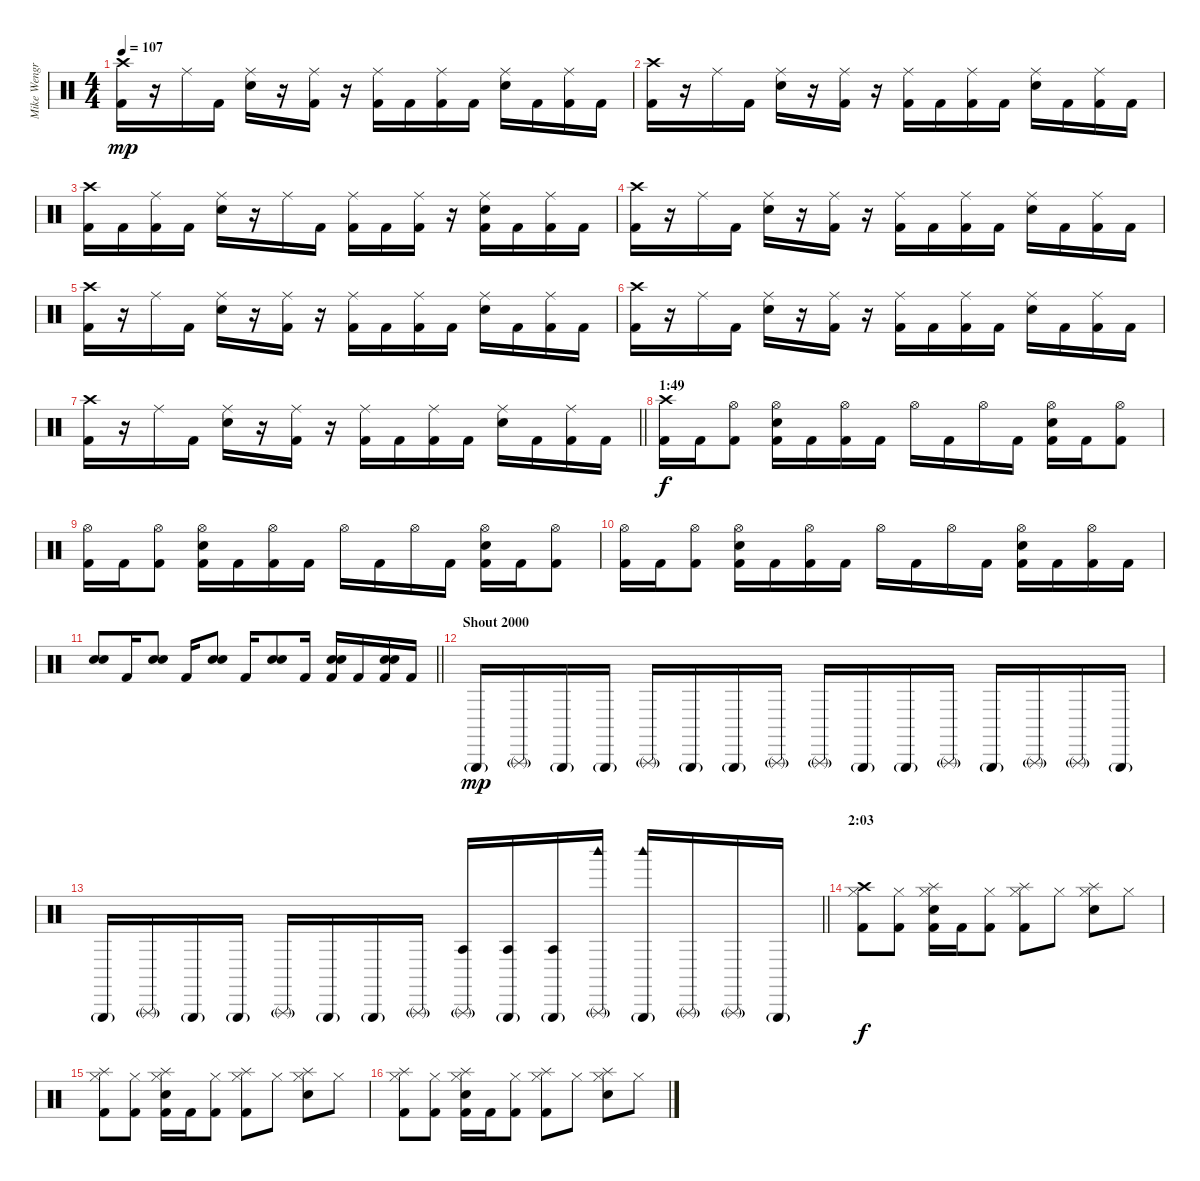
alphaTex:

\track ("Mike Wengren" "Mike Wengr") {instrument percussion}
\staff {score}
\articulation defaults
\ts (4 4)
\tempo 107
\clef neutral
\ks c
("Crash high (hit)" "Kick (hit) 2").16{dy mp} r.16 "Ride (middle)".16 "Kick (hit) 2".16 ("Ride (middle)" "Snare (hit) 2").16 r.16 ("Ride (middle)" "Kick (hit) 2").16 r.16 ("Ride (middle)" "Kick (hit) 2").16 "Kick (hit) 2".16 ("Ride (middle)" "Kick (hit) 2").16 "Kick (hit) 2".16 ("Ride (middle)" "Snare (hit) 2").16 "Kick (hit) 2".16 ("Ride (middle)" "Kick (hit) 2").16 "Kick (hit) 2".16 |
("Crash high (hit)" "Kick (hit) 2").16 r.16 "Ride (middle)".16 "Kick (hit) 2".16 ("Ride (middle)" "Snare (hit) 2").16 r.16 ("Ride (middle)" "Kick (hit) 2").16 r.16 ("Ride (middle)" "Kick (hit) 2").16 "Kick (hit) 2".16 ("Ride (middle)" "Kick (hit) 2").16 "Kick (hit) 2".16 ("Ride (middle)" "Snare (hit) 2").16 "Kick (hit) 2".16 ("Ride (middle)" "Kick (hit) 2").16 "Kick (hit) 2".16 |
("Crash high (hit)" "Kick (hit) 2").16 "Kick (hit) 2".16 ("Ride (middle)" "Kick (hit) 2").16 "Kick (hit) 2".16 ("Ride (middle)" "Snare (hit) 2").16 r.16 "Ride (middle)".16 "Kick (hit) 2".16 ("Ride (middle)" "Kick (hit) 2").16 "Kick (hit) 2".16 ("Ride (middle)" "Kick (hit) 2").16 r.16 ("Ride (middle)" "Snare (hit) 2" "Kick (hit) 2").16 "Kick (hit) 2".16 ("Ride (middle)" "Kick (hit) 2").16 "Kick (hit) 2".16 |
("Crash high (hit)" "Kick (hit) 2").16 r.16 "Ride (middle)".16 "Kick (hit) 2".16 ("Ride (middle)" "Snare (hit) 2").16 r.16 ("Ride (middle)" "Kick (hit) 2").16 r.16 ("Ride (middle)" "Kick (hit) 2").16 "Kick (hit) 2".16 ("Ride (middle)" "Kick (hit) 2").16 "Kick (hit) 2".16 ("Ride (middle)" "Snare (hit) 2").16 "Kick (hit) 2".16 ("Ride (middle)" "Kick (hit) 2").16 "Kick (hit) 2".16 |
("Crash high (hit)" "Kick (hit) 2").16 r.16 "Ride (middle)".16 "Kick (hit) 2".16 ("Ride (middle)" "Snare (hit) 2").16 r.16 ("Ride (middle)" "Kick (hit) 2").16 r.16 ("Ride (middle)" "Kick (hit) 2").16 "Kick (hit) 2".16 ("Ride (middle)" "Kick (hit) 2").16 "Kick (hit) 2".16 ("Ride (middle)" "Snare (hit) 2").16 "Kick (hit) 2".16 ("Ride (middle)" "Kick (hit) 2").16 "Kick (hit) 2".16 |
("Crash high (hit)" "Kick (hit) 2").16 r.16 "Ride (middle)".16 "Kick (hit) 2".16 ("Ride (middle)" "Snare (hit) 2").16 r.16 ("Ride (middle)" "Kick (hit) 2").16 r.16 ("Ride (middle)" "Kick (hit) 2").16 "Kick (hit) 2".16 ("Ride (middle)" "Kick (hit) 2").16 "Kick (hit) 2".16 ("Ride (middle)" "Snare (hit) 2").16 "Kick (hit) 2".16 ("Ride (middle)" "Kick (hit) 2").16 "Kick (hit) 2".16 |
\barLineRight lightlight
("Crash high (hit)" "Kick (hit) 2").16 r.16 "Ride (middle)".16 "Kick (hit) 2".16 ("Ride (middle)" "Snare (hit) 2").16 r.16 ("Ride (middle)" "Kick (hit) 2").16 r.16 ("Ride (middle)" "Kick (hit) 2").16 "Kick (hit) 2".16 ("Ride (middle)" "Kick (hit) 2").16 "Kick (hit) 2".16 ("Ride (middle)" "Snare (hit) 2").16 "Kick (hit) 2".16 ("Ride (middle)" "Kick (hit) 2").16 "Kick (hit) 2".16 |
\section ("" "1:49")
("Crash high (hit)" "Kick (hit) 2").16{dy f} "Kick (hit) 2".16 ("Hi-Hat (open)" "Kick (hit) 2").8 ("Hi-Hat (open)" "Snare (hit) 2" "Kick (hit) 2").16 "Kick (hit) 2".16 ("Hi-Hat (open)" "Kick (hit) 2").16 "Kick (hit) 2".16 "Hi-Hat (open)".16 "Kick (hit) 2".16 "Hi-Hat (open)".16 "Kick (hit) 2".16 ("Hi-Hat (open)" "Snare (hit) 2" "Kick (hit) 2").16 "Kick (hit) 2".16 ("Hi-Hat (open)" "Kick (hit) 2").8 |
("Hi-Hat (open)" "Kick (hit) 2").16 "Kick (hit) 2".16 ("Hi-Hat (open)" "Kick (hit) 2").8 ("Hi-Hat (open)" "Snare (hit) 2" "Kick (hit) 2").16 "Kick (hit) 2".16 ("Hi-Hat (open)" "Kick (hit) 2").16 "Kick (hit) 2".16 "Hi-Hat (open)".16 "Kick (hit) 2".16 "Hi-Hat (open)".16 "Kick (hit) 2".16 ("Hi-Hat (open)" "Snare (hit) 2" "Kick (hit) 2").16 "Kick (hit) 2".16 ("Hi-Hat (open)" "Kick (hit) 2").8 |
("Hi-Hat (open)" "Kick (hit) 2").16 "Kick (hit) 2".16 ("Hi-Hat (open)" "Kick (hit) 2").8 ("Hi-Hat (open)" "Snare (hit) 2" "Kick (hit) 2").16 "Kick (hit) 2".16 ("Hi-Hat (open)" "Kick (hit) 2").16 "Kick (hit) 2".16 "Hi-Hat (open)".16 "Kick (hit) 2".16 "Hi-Hat (open)".16 "Kick (hit) 2".16 ("Hi-Hat (open)" "Snare (hit) 2" "Kick (hit) 2").16 "Kick (hit) 2".16 ("Hi-Hat (open)" "Kick (hit) 2").16 "Kick (hit) 2".16 |
\barLineRight lightlight
("Snare (hit) 2" "Snare (hit) 2").8 "Kick (hit) 2".16 ("Snare (hit) 2" "Snare (hit) 2").8 "Kick (hit) 2".16 ("Snare (hit) 2" "Snare (hit) 2").8 "Kick (hit) 2".16 ("Snare (hit) 2" "Snare (hit) 2").8 "Kick (hit) 2".16 ("Snare (hit) 2" "Snare (hit) 2" "Kick (hit) 2").16 "Kick (hit) 2".16 ("Snare (hit) 2" "Snare (hit) 2" "Kick (hit) 2").16 "Kick (hit) 2".16 |
\section ("" "Shout 2000")
"Triangle (hit)"{g}.16{dy mp} "Triangle (rnute)"{g}.16 "Triangle (hit)"{g}.16 "Triangle (hit)"{g}.16 "Triangle (rnute)"{g}.16 "Triangle (hit)"{g}.16 "Triangle (hit)"{g}.16 "Triangle (rnute)"{g}.16 "Triangle (rnute)"{g}.16 "Triangle (hit)"{g}.16 "Triangle (hit)"{g}.16 "Triangle (rnute)"{g}.16 "Triangle (hit)"{g}.16 "Triangle (rnute)"{g}.16 "Triangle (rnute)"{g}.16 "Triangle (hit)"{g}.16 |
\barLineRight lightlight "Triangle (hit)"{g}.16 "Triangle (rnute)"{g}.16 "Triangle (hit)"{g}.16 "Triangle (hit)"{g}.16 "Triangle (rnute)"{g}.16 "Triangle (hit)"{g}.16 "Triangle (hit)"{g}.16 "Triangle (rnute)"{g}.16
("Triangle (rnute)"{g} "Agogo tow (hit)").16 ("Triangle (hit)"{g} "Agogo tow (hit)").16 ("Triangle (hit)"{g} "Agogo tow (hit)").16 ("Triangle (rnute)"{g} "Woodblock high (hit)").16 ("Triangle (hit)"{g} "Woodblock high (hit)").16 "Triangle (rnute)"{g}.16 "Triangle (rnute)"{g}.16 "Triangle (hit)"{g}.16 |
\section ("" "2:03")
("Crash high (hit)" "Hi-Hat (closed)" "Kick (hit) 2").8{dy f} ("Hi-Hat (closed)" "Kick (hit) 2").8 ("Splash (hit)" "Hi-Hat (closed)" "Electric Snare (hit)" "Kick (hit) 2").16 "Kick (hit) 2".16 ("Hi-Hat (closed)" "Kick (hit) 2").8 ("Splash (hit)" "Hi-Hat (closed)" "Kick (hit) 2").8 "Hi-Hat (closed)".8 ("Splash (hit)" "Hi-Hat (closed)" "Electric Snare (hit)").8 "Hi-Hat (closed)".8 |
("Splash (hit)" "Hi-Hat (closed)" "Kick (hit) 2").8 ("Hi-Hat (closed)" "Kick (hit) 2").8 ("Splash (hit)" "Hi-Hat (closed)" "Electric Snare (hit)" "Kick (hit) 2").16 "Kick (hit) 2".16 ("Hi-Hat (closed)" "Kick (hit) 2").8 ("Splash (hit)" "Hi-Hat (closed)" "Kick (hit) 2").8 "Hi-Hat (closed)".8 ("Splash (hit)" "Hi-Hat (closed)" "Electric Snare (hit)").8 "Hi-Hat (closed)".8 |
("Splash (hit)" "Hi-Hat (closed)" "Kick (hit) 2").8 ("Hi-Hat (closed)" "Kick (hit) 2").8 ("Splash (hit)" "Hi-Hat (closed)" "Electric Snare (hit)" "Kick (hit) 2").16 "Kick (hit) 2".16 ("Hi-Hat (closed)" "Kick (hit) 2").8 ("Splash (hit)" "Hi-Hat (closed)" "Kick (hit) 2").8 "Hi-Hat (closed)".8 ("Splash (hit)" "Hi-Hat (closed)" "Electric Snare (hit)").8 "Hi-Hat (closed)".8
